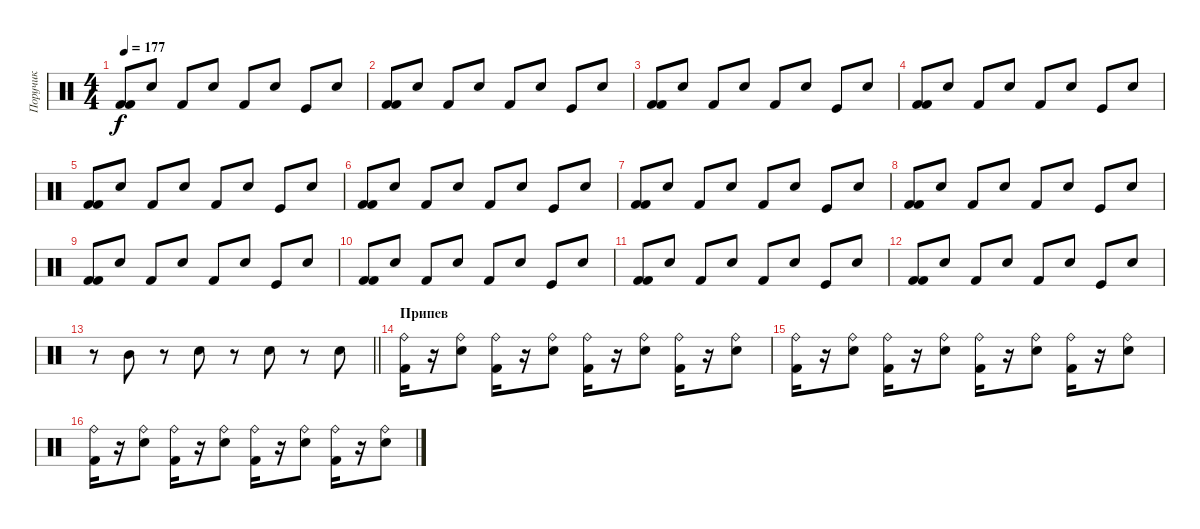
\track ("Поручик" "Поручик") {instrument percussion}
\staff {score}
\articulation defaults
\ts (4 4)
\tempo 177
\clef neutral
\ks c
("Kick (hit) 2" "Kick (hit) 2").8{dy f} "Snare (hit) 2".8 "Kick (hit) 2".8 "Snare (hit) 2".8 "Kick (hit) 2".8 "Snare (hit) 2".8 "Kick (hit)".8 "Snare (hit) 2".8 |
("Kick (hit) 2" "Kick (hit) 2").8 "Snare (hit) 2".8 "Kick (hit) 2".8 "Snare (hit) 2".8 "Kick (hit) 2".8 "Snare (hit) 2".8 "Kick (hit)".8 "Snare (hit) 2".8 |
("Kick (hit) 2" "Kick (hit) 2").8 "Snare (hit) 2".8 "Kick (hit) 2".8 "Snare (hit) 2".8 "Kick (hit) 2".8 "Snare (hit) 2".8 "Kick (hit)".8 "Snare (hit) 2".8 |
("Kick (hit) 2" "Kick (hit) 2").8 "Snare (hit) 2".8 "Kick (hit) 2".8 "Snare (hit) 2".8 "Kick (hit) 2".8 "Snare (hit) 2".8 "Kick (hit)".8 "Snare (hit) 2".8 |
("Kick (hit) 2" "Kick (hit) 2").8 "Snare (hit) 2".8 "Kick (hit) 2".8 "Snare (hit) 2".8 "Kick (hit) 2".8 "Snare (hit) 2".8 "Kick (hit)".8 "Snare (hit) 2".8 |
("Kick (hit) 2" "Kick (hit) 2").8 "Snare (hit) 2".8 "Kick (hit) 2".8 "Snare (hit) 2".8 "Kick (hit) 2".8 "Snare (hit) 2".8 "Kick (hit)".8 "Snare (hit) 2".8 |
("Kick (hit) 2" "Kick (hit) 2").8 "Snare (hit) 2".8 "Kick (hit) 2".8 "Snare (hit) 2".8 "Kick (hit) 2".8 "Snare (hit) 2".8 "Kick (hit)".8 "Snare (hit) 2".8 |
("Kick (hit) 2" "Kick (hit) 2").8 "Snare (hit) 2".8 "Kick (hit) 2".8 "Snare (hit) 2".8 "Kick (hit) 2".8 "Snare (hit) 2".8 "Kick (hit)".8 "Snare (hit) 2".8 |
("Kick (hit) 2" "Kick (hit) 2").8 "Snare (hit) 2".8 "Kick (hit) 2".8 "Snare (hit) 2".8 "Kick (hit) 2".8 "Snare (hit) 2".8 "Kick (hit)".8 "Snare (hit) 2".8 |
("Kick (hit) 2" "Kick (hit) 2").8 "Snare (hit) 2".8 "Kick (hit) 2".8 "Snare (hit) 2".8 "Kick (hit) 2".8 "Snare (hit) 2".8 "Kick (hit)".8 "Snare (hit) 2".8 |
("Kick (hit) 2" "Kick (hit) 2").8 "Snare (hit) 2".8 "Kick (hit) 2".8 "Snare (hit) 2".8 "Kick (hit) 2".8 "Snare (hit) 2".8 "Kick (hit)".8 "Snare (hit) 2".8 |
("Kick (hit) 2" "Kick (hit) 2").8 "Snare (hit) 2".8 "Kick (hit) 2".8 "Snare (hit) 2".8 "Kick (hit) 2".8 "Snare (hit) 2".8 "Kick (hit)".8 "Snare (hit) 2".8 |
\barLineRight lightlight
r.8 "Mid Tom (hit)".8 r.8 "Snare (hit) 2".8 r.8 "Snare (hit) 2".8 r.8 "Snare (hit) 2".8 |
\section ("" "Припев")
("Ride (bell)" "Kick (hit) 2").16 r.16 ("Ride (bell)" "Snare (hit) 2").8 ("Ride (bell)" "Kick (hit) 2").16 r.16 ("Ride (bell)" "Snare (hit) 2").8 ("Ride (bell)" "Kick (hit) 2").16 r.16 ("Ride (bell)" "Snare (hit) 2").8 ("Ride (bell)" "Kick (hit) 2").16 r.16 ("Ride (bell)" "Snare (hit) 2").8 |
("Ride (bell)" "Kick (hit) 2").16 r.16 ("Ride (bell)" "Snare (hit) 2").8 ("Ride (bell)" "Kick (hit) 2").16 r.16 ("Ride (bell)" "Snare (hit) 2").8 ("Ride (bell)" "Kick (hit) 2").16 r.16 ("Ride (bell)" "Snare (hit) 2").8 ("Ride (bell)" "Kick (hit) 2").16 r.16 ("Ride (bell)" "Snare (hit) 2").8 |
("Ride (bell)" "Kick (hit) 2").16 r.16 ("Ride (bell)" "Snare (hit) 2").8 ("Ride (bell)" "Kick (hit) 2").16 r.16 ("Ride (bell)" "Snare (hit) 2").8 ("Ride (bell)" "Kick (hit) 2").16 r.16 ("Ride (bell)" "Snare (hit) 2").8 ("Ride (bell)" "Kick (hit) 2").16 r.16 ("Ride (bell)" "Snare (hit) 2").8
